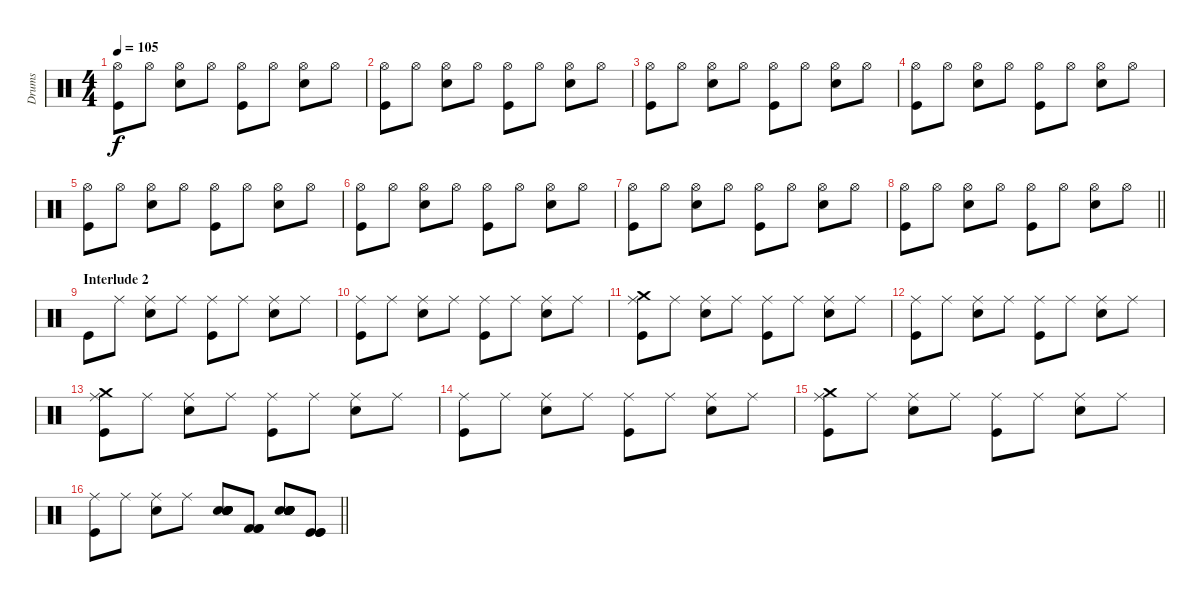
\track ("Drums" "Drums") {instrument percussion}
\staff {score}
\articulation defaults
\ts (4 4)
\tempo 105
\clef neutral
\ks c
("Kick (hit)" "Hi-Hat (open)").8{dy f} "Hi-Hat (open)".8 ("Electric Snare (hit)" "Hi-Hat (open)").8 "Hi-Hat (open)".8 ("Kick (hit)" "Hi-Hat (open)").8 "Hi-Hat (open)".8 ("Electric Snare (hit)" "Hi-Hat (open)").8 "Hi-Hat (open)".8 |
("Kick (hit)" "Hi-Hat (open)").8 "Hi-Hat (open)".8 ("Electric Snare (hit)" "Hi-Hat (open)").8 "Hi-Hat (open)".8 ("Kick (hit)" "Hi-Hat (open)").8 "Hi-Hat (open)".8 ("Electric Snare (hit)" "Hi-Hat (open)").8 "Hi-Hat (open)".8 |
("Kick (hit)" "Hi-Hat (open)").8 "Hi-Hat (open)".8 ("Electric Snare (hit)" "Hi-Hat (open)").8 "Hi-Hat (open)".8 ("Kick (hit)" "Hi-Hat (open)").8 "Hi-Hat (open)".8 ("Electric Snare (hit)" "Hi-Hat (open)").8 "Hi-Hat (open)".8 |
("Kick (hit)" "Hi-Hat (open)").8 "Hi-Hat (open)".8 ("Electric Snare (hit)" "Hi-Hat (open)").8 "Hi-Hat (open)".8 ("Kick (hit)" "Hi-Hat (open)").8 "Hi-Hat (open)".8 ("Electric Snare (hit)" "Hi-Hat (open)").8 "Hi-Hat (open)".8 |
("Kick (hit)" "Hi-Hat (open)").8 "Hi-Hat (open)".8 ("Electric Snare (hit)" "Hi-Hat (open)").8 "Hi-Hat (open)".8 ("Kick (hit)" "Hi-Hat (open)").8 "Hi-Hat (open)".8 ("Electric Snare (hit)" "Hi-Hat (open)").8 "Hi-Hat (open)".8 |
("Kick (hit)" "Hi-Hat (open)").8 "Hi-Hat (open)".8 ("Electric Snare (hit)" "Hi-Hat (open)").8 "Hi-Hat (open)".8 ("Kick (hit)" "Hi-Hat (open)").8 "Hi-Hat (open)".8 ("Electric Snare (hit)" "Hi-Hat (open)").8 "Hi-Hat (open)".8 |
("Kick (hit)" "Hi-Hat (open)").8 "Hi-Hat (open)".8 ("Electric Snare (hit)" "Hi-Hat (open)").8 "Hi-Hat (open)".8 ("Kick (hit)" "Hi-Hat (open)").8 "Hi-Hat (open)".8 ("Electric Snare (hit)" "Hi-Hat (open)").8 "Hi-Hat (open)".8 |
\barLineRight lightlight
("Kick (hit)" "Hi-Hat (open)").8 "Hi-Hat (open)".8 ("Electric Snare (hit)" "Hi-Hat (open)").8 "Hi-Hat (open)".8 ("Kick (hit)" "Hi-Hat (open)").8 "Hi-Hat (open)".8 ("Electric Snare (hit)" "Hi-Hat (open)").8 "Hi-Hat (open)".8 |
\section ("" "Interlude 2")
"Kick (hit)".8 "Ride (middle)".8 ("Electric Snare (hit)" "Ride (middle)").8 "Ride (middle)".8 ("Kick (hit)" "Ride (middle)").8 "Ride (middle)".8 ("Electric Snare (hit)" "Ride (middle)").8 "Ride (middle)".8 |
("Kick (hit)" "Ride (middle)").8 "Ride (middle)".8 ("Electric Snare (hit)" "Ride (middle)").8 "Ride (middle)".8 ("Kick (hit)" "Ride (middle)").8 "Ride (middle)".8 ("Electric Snare (hit)" "Ride (middle)").8 "Ride (middle)".8 |
("Crash medium (hit)" "Kick (hit)" "Ride (middle)").8 "Ride (middle)".8 ("Electric Snare (hit)" "Ride (middle)").8 "Ride (middle)".8 ("Kick (hit)" "Ride (middle)").8 "Ride (middle)".8 ("Electric Snare (hit)" "Ride (middle)").8 "Ride (middle)".8 |
("Kick (hit)" "Ride (middle)").8 "Ride (middle)".8 ("Electric Snare (hit)" "Ride (middle)").8 "Ride (middle)".8 ("Kick (hit)" "Ride (middle)").8 "Ride (middle)".8 ("Electric Snare (hit)" "Ride (middle)").8 "Ride (middle)".8 |
("Crash medium (hit)" "Kick (hit)" "Ride (middle)").8 "Ride (middle)".8 ("Electric Snare (hit)" "Ride (middle)").8 "Ride (middle)".8 ("Kick (hit)" "Ride (middle)").8 "Ride (middle)".8 ("Electric Snare (hit)" "Ride (middle)").8 "Ride (middle)".8 |
("Kick (hit)" "Ride (middle)").8 "Ride (middle)".8 ("Electric Snare (hit)" "Ride (middle)").8 "Ride (middle)".8 ("Kick (hit)" "Ride (middle)").8 "Ride (middle)".8 ("Electric Snare (hit)" "Ride (middle)").8 "Ride (middle)".8 |
("Crash medium (hit)" "Kick (hit)" "Ride (middle)").8 "Ride (middle)".8 ("Electric Snare (hit)" "Ride (middle)").8 "Ride (middle)".8 ("Kick (hit)" "Ride (middle)").8 "Ride (middle)".8 ("Electric Snare (hit)" "Ride (middle)").8 "Ride (middle)".8 |
\barLineRight lightlight
("Kick (hit)" "Ride (middle)").8 "Ride (middle)".8 ("Electric Snare (hit)" "Ride (middle)").8 "Ride (middle)".8 ("Electric Snare (hit)" "Electric Snare (hit)" "Electric Snare (hit)" "Electric Snare (hit)" "Electric Snare (hit)" "Electric Snare (hit)").8 ("Kick (hit) 2" "Kick (hit) 2" "Kick (hit) 2").8 ("Electric Snare (hit)" "Electric Snare (hit)" "Electric Snare (hit)" "Electric Snare (hit)" "Electric Snare (hit)" "Electric Snare (hit)").8 ("Kick (hit)" "Kick (hit)" "Kick (hit)").8
